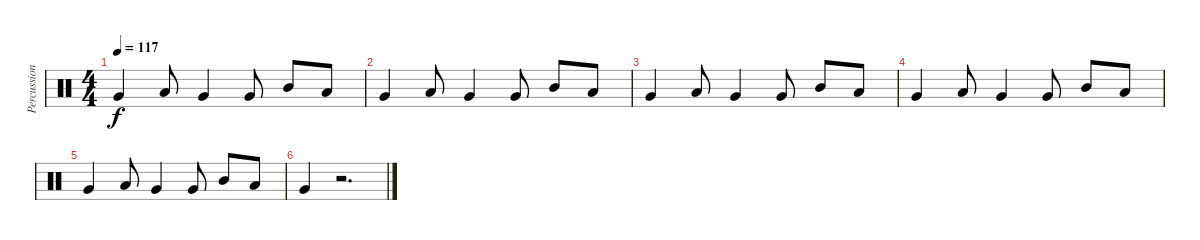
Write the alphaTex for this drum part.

\track ("Percussion" "Percussion") {instrument percussion}
\staff {score}
\articulation defaults
\ts (4 4)
\tempo 117
\clef neutral
\ks c "Very Low Tom (hit)".4{dy f} "Low Tom (hit)".8 "Very Low Tom (hit)".4 "Very Low Tom (hit)".8 "Mid Tom (hit)".8 "Low Tom (hit)".8
|
"Very Low Tom (hit)".4 "Low Tom (hit)".8 "Very Low Tom (hit)".4 "Very Low Tom (hit)".8 "Mid Tom (hit)".8 "Low Tom (hit)".8 |
"Very Low Tom (hit)".4 "Low Tom (hit)".8 "Very Low Tom (hit)".4 "Very Low Tom (hit)".8 "Mid Tom (hit)".8 "Low Tom (hit)".8 |
"Very Low Tom (hit)".4 "Low Tom (hit)".8 "Very Low Tom (hit)".4 "Very Low Tom (hit)".8 "Mid Tom (hit)".8 "Low Tom (hit)".8 |
"Very Low Tom (hit)".4 "Low Tom (hit)".8 "Very Low Tom (hit)".4 "Very Low Tom (hit)".8 "Mid Tom (hit)".8 "Low Tom (hit)".8 |
"Very Low Tom (hit)".4 r.2{d}
